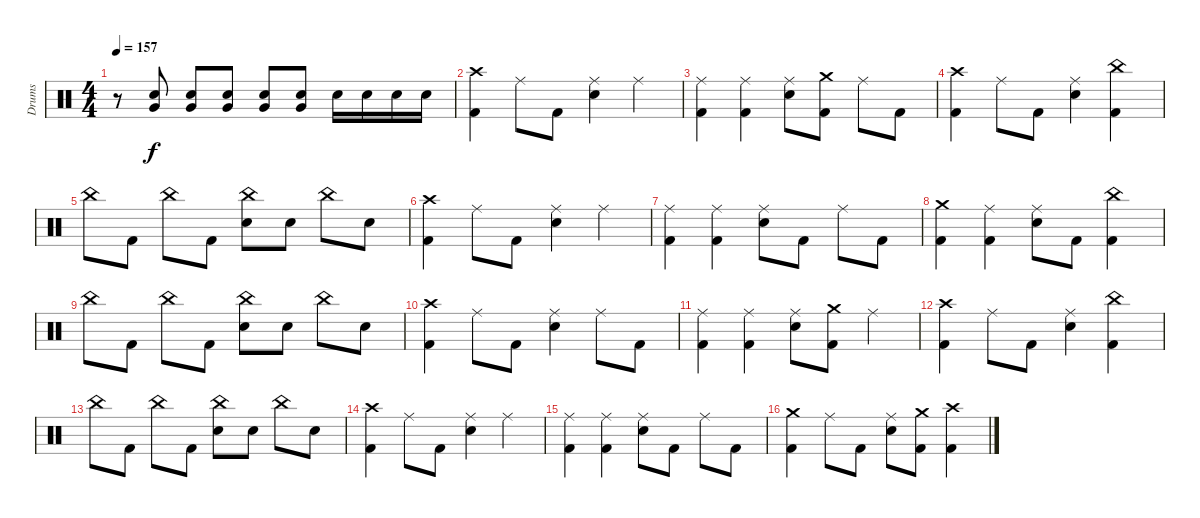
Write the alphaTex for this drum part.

\track ("Drums" "Drums") {instrument percussion}
\staff {score}
\articulation defaults
\ts (4 4)
\tempo 157
\clef neutral
\ks c
r.8{dy f} ("Electric Snare (hit)" "Very Low Tom (hit)").8 ("Electric Snare (hit)" "Very Low Tom (hit)").8 ("Electric Snare (hit)" "Very Low Tom (hit)").8 ("Electric Snare (hit)" "Very Low Tom (hit)").8 ("Electric Snare (hit)" "Very Low Tom (hit)").8 "Electric Snare (hit)".16 "Electric Snare (hit)".16 "Electric Snare (hit)".16 "Electric Snare (hit)".16 |
("Crash high (hit)" "Kick (hit) 2").4 "Ride (middle)".8 "Kick (hit) 2".8 ("Ride (middle)" "Electric Snare (hit)").4 "Ride (middle)".4 |
("Ride (middle)" "Kick (hit) 2").4 ("Ride (middle)" "Kick (hit) 2").4 ("Ride (middle)" "Electric Snare (hit)").8 ("Crash medium (hit)" "Kick (hit) 2").8 "Ride (middle)".8 "Kick (hit) 2".8 |
("Crash high (hit)" "Kick (hit) 2").4 "Ride (middle)".8 "Kick (hit) 2".8 ("Ride (middle)" "Electric Snare (hit)").4 ("China (hit)" "Kick (hit) 2").4 |
"China (hit)".8 "Kick (hit) 2".8 "China (hit)".8 "Kick (hit) 2".8 ("China (hit)" "Electric Snare (hit)").8 "Electric Snare (hit)".8 "China (hit)".8 "Electric Snare (hit)".8 |
("Crash high (hit)" "Kick (hit) 2").4 "Ride (middle)".8 "Kick (hit) 2".8 ("Ride (middle)" "Electric Snare (hit)").4 "Ride (middle)".4 |
("Ride (middle)" "Kick (hit) 2").4 ("Ride (middle)" "Kick (hit) 2").4 ("Ride (middle)" "Electric Snare (hit)").8 "Kick (hit) 2".8 "Ride (middle)".8 "Kick (hit) 2".8 |
("Crash medium (hit)" "Kick (hit) 2").4 ("Ride (middle)" "Kick (hit) 2").4 ("Ride (middle)" "Electric Snare (hit)").8 "Kick (hit) 2".8 ("China (hit)" "Kick (hit) 2").4 |
"China (hit)".8 "Kick (hit) 2".8 "China (hit)".8 "Kick (hit) 2".8 ("China (hit)" "Electric Snare (hit)").8 "Electric Snare (hit)".8 "China (hit)".8 "Electric Snare (hit)".8 |
("Crash high (hit)" "Kick (hit) 2").4 "Ride (middle)".8 "Kick (hit) 2".8 ("Ride (middle)" "Electric Snare (hit)").4 "Ride (middle)".8 "Kick (hit) 2".8 |
("Ride (middle)" "Kick (hit) 2").4 ("Ride (middle)" "Kick (hit) 2").4 ("Ride (middle)" "Electric Snare (hit)").8 ("Crash medium (hit)" "Kick (hit) 2").8 "Ride (middle)".4 |
("Crash high (hit)" "Kick (hit) 2").4 "Ride (middle)".8 "Kick (hit) 2".8 ("Ride (middle)" "Electric Snare (hit)").4 ("China (hit)" "Kick (hit) 2").4 |
"China (hit)".8 "Kick (hit) 2".8 "China (hit)".8 "Kick (hit) 2".8 ("China (hit)" "Electric Snare (hit)").8 "Electric Snare (hit)".8 "China (hit)".8 "Electric Snare (hit)".8 |
("Crash high (hit)" "Kick (hit) 2").4 "Ride (middle)".8 "Kick (hit) 2".8 ("Ride (middle)" "Electric Snare (hit)").4 "Ride (middle)".4 |
("Ride (middle)" "Kick (hit) 2").4 ("Ride (middle)" "Kick (hit) 2").4 ("Ride (middle)" "Electric Snare (hit)").8 "Kick (hit) 2".8 "Ride (middle)".8 "Kick (hit) 2".8 |
("Crash medium (hit)" "Kick (hit) 2").4 "Ride (middle)".8 "Kick (hit) 2".8 ("Ride (middle)" "Electric Snare (hit)").8 ("Crash medium (hit)" "Kick (hit) 2").8 ("Crash high (hit)" "Kick (hit) 2").4
